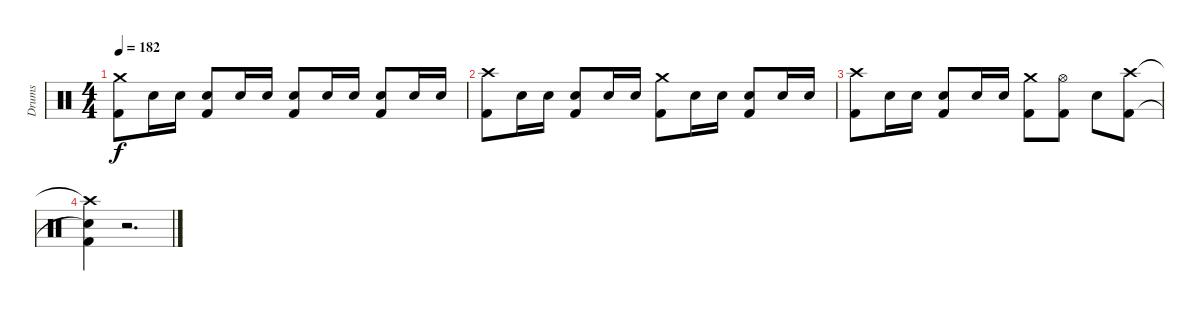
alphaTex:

\track ("Drums" "Drums") {instrument percussion}
\staff {score}
\articulation defaults
\ts (4 4)
\tempo 182
\clef neutral
\ks c
("Crash medium (hit)" "Kick (hit) 2").8{dy f} "Snare (hit) 2".16 "Snare (hit) 2".16 ("Snare (hit) 2" "Kick (hit) 2").8 "Snare (hit) 2".16 "Snare (hit) 2".16 ("Snare (hit) 2" "Kick (hit) 2").8 "Snare (hit) 2".16 "Snare (hit) 2".16 ("Snare (hit) 2" "Kick (hit) 2").8 "Snare (hit) 2".16 "Snare (hit) 2".16 |
("Crash high (hit)" "Kick (hit) 2").8 "Snare (hit) 2".16 "Snare (hit) 2".16 ("Snare (hit) 2" "Kick (hit) 2").8 "Snare (hit) 2".16 "Snare (hit) 2".16 ("Crash medium (hit)" "Kick (hit) 2").8 "Snare (hit) 2".16 "Snare (hit) 2".16 ("Snare (hit) 2" "Kick (hit) 2").8 "Snare (hit) 2".16 "Snare (hit) 2".16 |
("Crash high (hit)" "Kick (hit) 2").8 "Snare (hit) 2".16 "Snare (hit) 2".16 ("Snare (hit) 2" "Kick (hit) 2").8 "Snare (hit) 2".16 "Snare (hit) 2".16 ("Crash medium (hit)" "Kick (hit) 2").8 ("Hi-Hat (open)" "Kick (hit) 2").8 "Snare (hit) 2".8 ("Crash high (hit)" "Kick (hit) 2").8 |
("Crash high (hit)"{t} "Snare (hit)"{t} "Kick (hit) 2").4 r.2{d}
